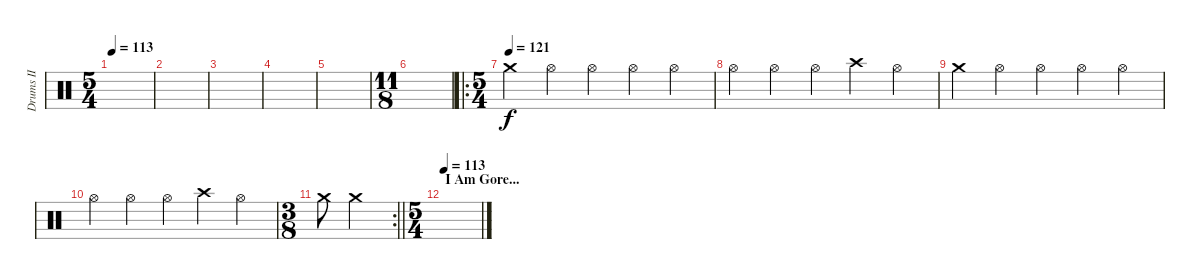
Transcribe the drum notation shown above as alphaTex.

\track ("Drums II" "Drums II") {instrument percussion}
\staff {score}
\articulation defaults
\ts (5 4)
\tempo 113
\clef neutral
\ks c
|
|
|
|
|
\ts (11 8)
|
\ro
\ts (5 4)
\tempo (121)
"Crash medium (hit)".4 "Hi-Hat (open)".4 "Hi-Hat (open)".4 "Hi-Hat (open)".4 "Hi-Hat (open)".4 |
"Hi-Hat (open)".4 "Hi-Hat (open)".4 "Hi-Hat (open)".4 "Crash high (hit)".4 "Hi-Hat (open)".4 |
"Crash medium (hit)".4 "Hi-Hat (open)".4 "Hi-Hat (open)".4 "Hi-Hat (open)".4 "Hi-Hat (open)".4 |
"Hi-Hat (open)".4 "Hi-Hat (open)".4 "Hi-Hat (open)".4 "Crash high (hit)".4 "Hi-Hat (open)".4 |
\rc 2
\ts (3 8)
\barLineRight lightlight "Crash medium (hit)".8 "Crash medium (hit)".4
|
\ts (5 4)
\section ("" "I Am Gore...")
\tempo 113
